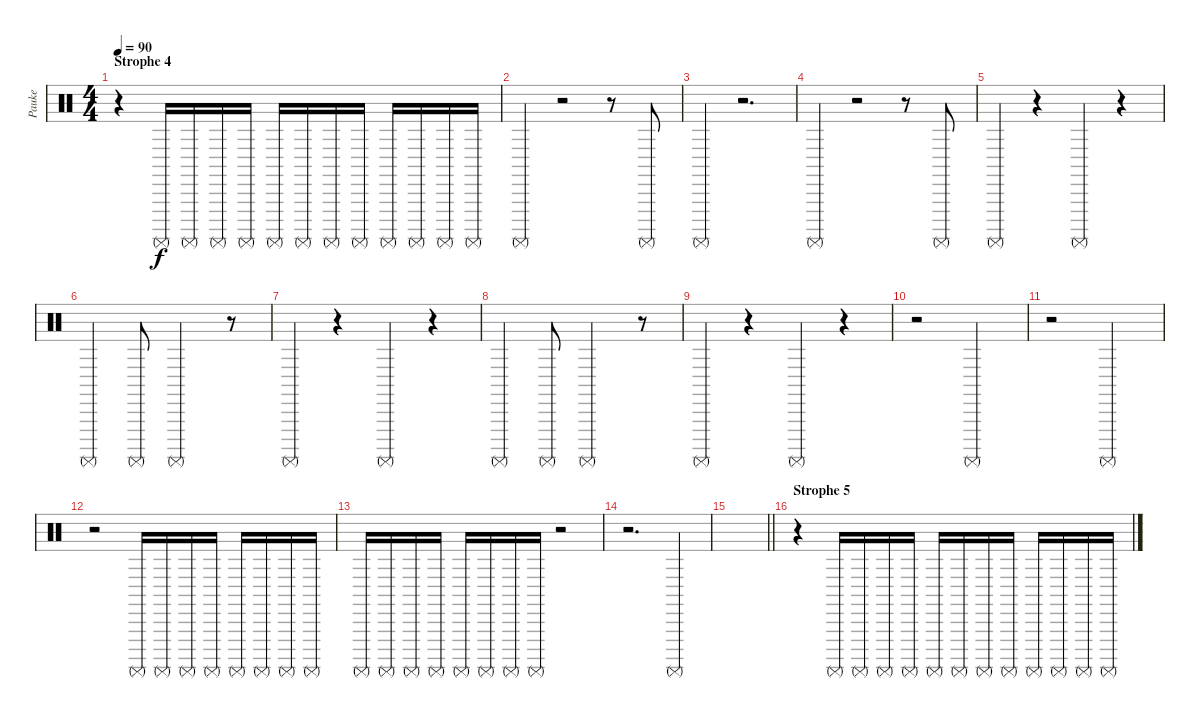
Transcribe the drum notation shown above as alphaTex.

\track ("Pauke" "Pauke") {instrument percussion}
\staff {score}
\articulation defaults
\ts (4 4)
\section ("" "Strophe 4")
\tempo 90
\clef neutral
\ks c
r.4{dy f} "Surdo (mute)".16 "Surdo (mute)".16 "Surdo (mute)".16 "Surdo (mute)".16 "Surdo (mute)".16 "Surdo (mute)".16 "Surdo (mute)".16 "Surdo (mute)".16 "Surdo (mute)".16 "Surdo (mute)".16 "Surdo (mute)".16 "Surdo (mute)".16 |
"Surdo (mute)".4{volume 15} r.2 r.8 "Surdo (mute)".8{volume 14} |
"Surdo (mute)".4{volume 14} r.2{d} |
"Surdo (mute)".4 r.2 r.8 "Surdo (mute)".8{volume 14} |
"Surdo (mute)".4{volume 14} r.4 "Surdo (mute)".4 r.4 |
"Surdo (mute)".4 "Surdo (mute)".8 "Surdo (mute)".2 r.8 |
"Surdo (mute)".4 r.4 "Surdo (mute)".4 r.4 |
"Surdo (mute)".4 "Surdo (mute)".8 "Surdo (mute)".2 r.8 |
"Surdo (mute)".4 r.4 "Surdo (mute)".4 r.4 |
r.2 "Surdo (mute)".2 |
r.2 "Surdo (mute)".2 |
r.2 "Surdo (mute)".16{volume 8} "Surdo (mute)".16 "Surdo (mute)".16 "Surdo (mute)".16 "Surdo (mute)".16 "Surdo (mute)".16 "Surdo (mute)".16 "Surdo (mute)".16 |
"Surdo (mute)".16{volume 8} "Surdo (mute)".16 "Surdo (mute)".16 "Surdo (mute)".16 "Surdo (mute)".16 "Surdo (mute)".16 "Surdo (mute)".16 "Surdo (mute)".16 r.2 |
r.2{d} "Surdo (mute)".4 |
\barLineRight lightlight
|
\section ("" "Strophe 5")
r.4 "Surdo (mute)".16 "Surdo (mute)".16 "Surdo (mute)".16 "Surdo (mute)".16 "Surdo (mute)".16 "Surdo (mute)".16 "Surdo (mute)".16 "Surdo (mute)".16 "Surdo (mute)".16 "Surdo (mute)".16 "Surdo (mute)".16 "Surdo (mute)".16
